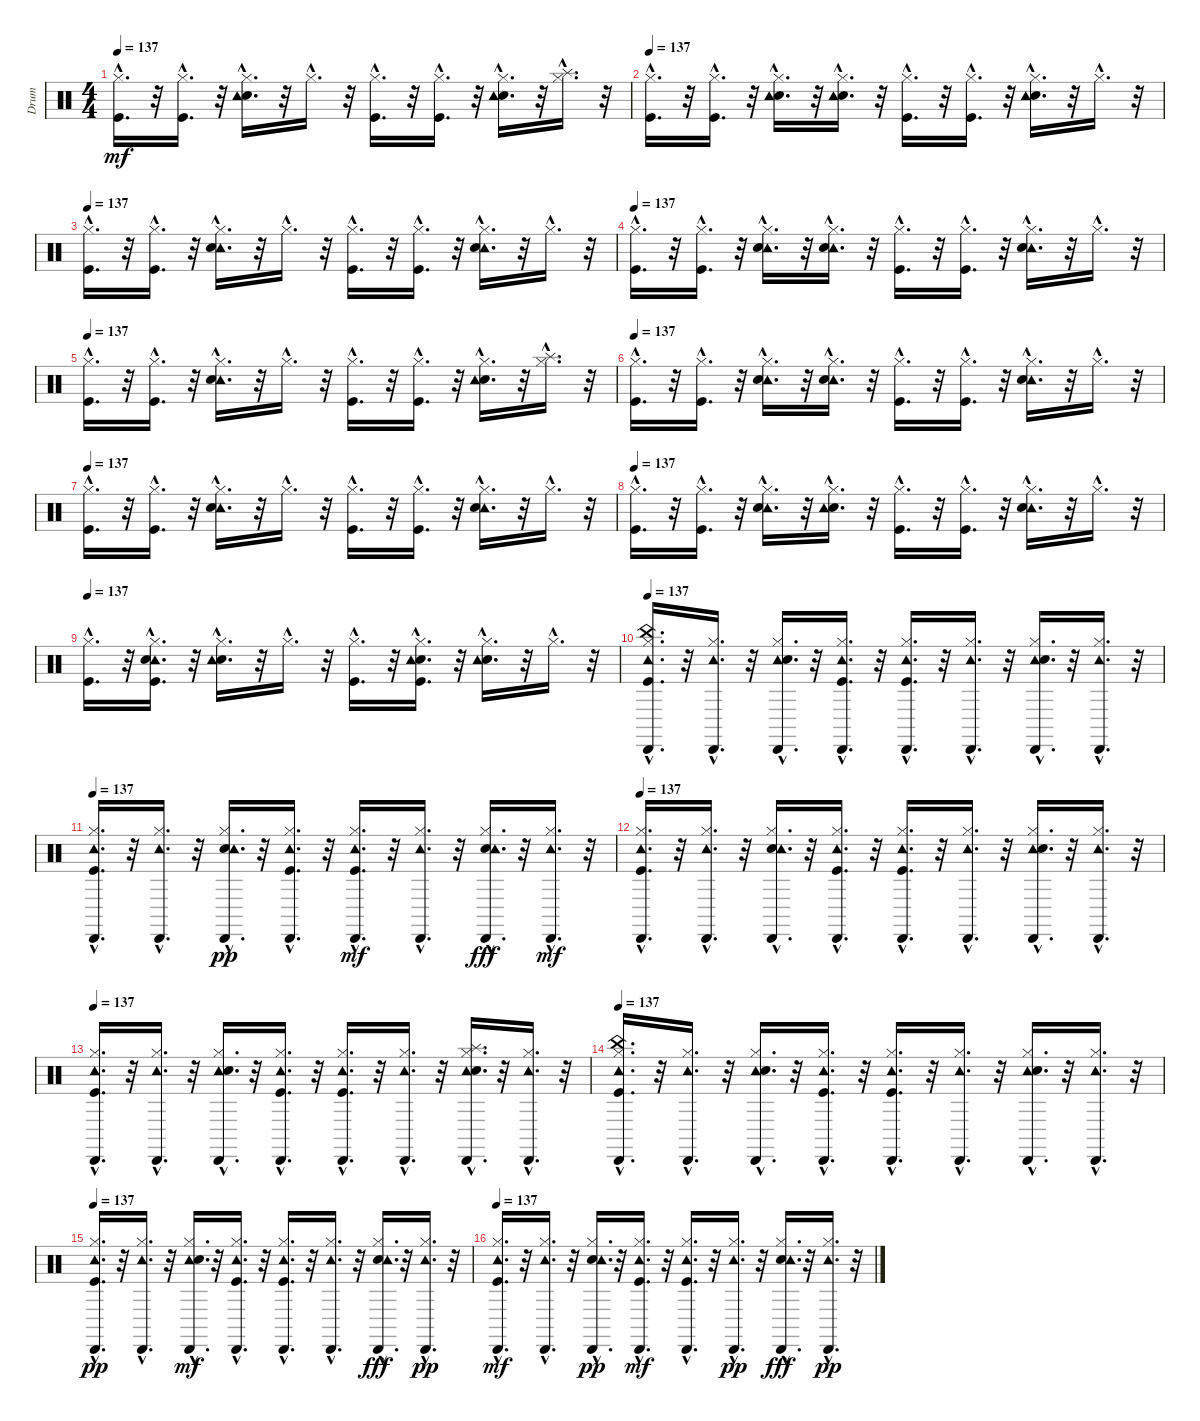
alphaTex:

\track ("Drum" "Drum") {instrument percussion}
\staff {score}
\articulation defaults
\ts (4 4)
\tempo 137
\clef neutral
\ks c
("Hi-Hat (closed)"{hac} "Kick (hit)"{hac}).16{d dy mf} r.32 ("Kick (hit)"{hac} "Hi-Hat (closed)"{hac}).16{d} r.32 ("Snare (hit) 2"{hac} "Hi-Hat (closed)"{hac} "Tambourine (hit)"{hac}).16{d} r.32 "Hi-Hat (closed)"{hac}.16{d} r.32 ("Hi-Hat (closed)"{hac} "Kick (hit)"{hac}).16{d} r.32 ("Kick (hit)"{hac} "Hi-Hat (closed)"{hac}).16{d} r.32 ("Snare (hit) 2"{hac} "Tambourine (hit)"{hac} "Hi-Hat (closed)"{hac}).16{d} r.32 ("Splash (hit)"{hac} "Hi-Hat (closed)"{hac}).16{d} r.32 |
\tempo 137
("Kick (hit)"{hac} "Hi-Hat (closed)"{hac}).16{d} r.32 ("Kick (hit)"{hac} "Hi-Hat (closed)"{hac}).16{d} r.32 ("Snare (hit) 2"{hac} "Tambourine (hit)"{hac} "Hi-Hat (closed)"{hac}).16{d} r.32 ("Snare (hit) 2"{hac} "Hi-Hat (closed)"{hac} "Tambourine (hit)"{hac}).16{d} r.32 ("Kick (hit)"{hac} "Hi-Hat (closed)"{hac}).16{d} r.32 ("Kick (hit)"{hac} "Hi-Hat (closed)"{hac}).16{d} r.32 ("Snare (hit) 2"{hac} "Tambourine (hit)"{hac} "Hi-Hat (closed)"{hac}).16{d} r.32 "Hi-Hat (closed)"{hac}.16{d} r.32 |
\tempo 137
("Hi-Hat (closed)"{hac} "Kick (hit)"{hac}).16{d} r.32 ("Hi-Hat (closed)"{hac} "Kick (hit)"{hac}).16{d} r.32 ("Tambourine (hit)"{hac} "Hi-Hat (closed)"{hac} "Snare (hit) 2"{hac}).16{d} r.32 "Hi-Hat (closed)"{hac}.16{d} r.32 ("Hi-Hat (closed)"{hac} "Kick (hit)"{hac}).16{d} r.32 ("Hi-Hat (closed)"{hac} "Kick (hit)"{hac}).16{d} r.32 ("Tambourine (hit)"{hac} "Hi-Hat (closed)"{hac} "Snare (hit) 2"{hac}).16{d} r.32 "Hi-Hat (closed)"{hac}.16{d} r.32 |
\tempo 137
("Hi-Hat (closed)"{hac} "Kick (hit)"{hac}).16{d} r.32 ("Hi-Hat (closed)"{hac} "Kick (hit)"{hac}).16{d} r.32 ("Tambourine (hit)"{hac} "Hi-Hat (closed)"{hac} "Snare (hit) 2"{hac}).16{d} r.32 ("Tambourine (hit)"{hac} "Hi-Hat (closed)"{hac} "Snare (hit) 2"{hac}).16{d} r.32 ("Hi-Hat (closed)"{hac} "Kick (hit)"{hac}).16{d} r.32 ("Hi-Hat (closed)"{hac} "Kick (hit)"{hac}).16{d} r.32 ("Tambourine (hit)"{hac} "Hi-Hat (closed)"{hac} "Snare (hit) 2"{hac}).16{d} r.32 "Hi-Hat (closed)"{hac}.16{d} r.32 |
\tempo 137
("Hi-Hat (closed)"{hac} "Kick (hit)"{hac}).16{d} r.32 ("Kick (hit)"{hac} "Hi-Hat (closed)"{hac}).16{d} r.32 ("Hi-Hat (closed)"{hac} "Tambourine (hit)"{hac} "Snare (hit) 2"{hac}).16{d} r.32 "Hi-Hat (closed)"{hac}.16{d} r.32 ("Kick (hit)"{hac} "Hi-Hat (closed)"{hac}).16{d} r.32 ("Kick (hit)"{hac} "Hi-Hat (closed)"{hac}).16{d} r.32 ("Snare (hit) 2"{hac} "Hi-Hat (closed)"{hac} "Tambourine (hit)"{hac}).16{d} r.32 ("Hi-Hat (closed)"{hac} "Splash (hit)"{hac}).16{d} r.32 |
\tempo 137
("Hi-Hat (closed)"{hac} "Kick (hit)"{hac}).16{d} r.32 ("Hi-Hat (closed)"{hac} "Kick (hit)"{hac}).16{d} r.32 ("Tambourine (hit)"{hac} "Hi-Hat (closed)"{hac} "Snare (hit) 2"{hac}).16{d} r.32 ("Tambourine (hit)"{hac} "Hi-Hat (closed)"{hac} "Snare (hit) 2"{hac}).16{d} r.32 ("Hi-Hat (closed)"{hac} "Kick (hit)"{hac}).16{d} r.32 ("Hi-Hat (closed)"{hac} "Kick (hit)"{hac}).16{d} r.32 ("Tambourine (hit)"{hac} "Hi-Hat (closed)"{hac} "Snare (hit) 2"{hac}).16{d} r.32 "Hi-Hat (closed)"{hac}.16{d} r.32 |
\tempo 137
("Hi-Hat (closed)"{hac} "Kick (hit)"{hac}).16{d} r.32 ("Hi-Hat (closed)"{hac} "Kick (hit)"{hac}).16{d} r.32 ("Tambourine (hit)"{hac} "Hi-Hat (closed)"{hac} "Snare (hit) 2"{hac}).16{d} r.32 "Hi-Hat (closed)"{hac}.16{d} r.32 ("Hi-Hat (closed)"{hac} "Kick (hit)"{hac}).16{d} r.32 ("Hi-Hat (closed)"{hac} "Kick (hit)"{hac}).16{d} r.32 ("Tambourine (hit)"{hac} "Hi-Hat (closed)"{hac} "Snare (hit) 2"{hac}).16{d} r.32 "Hi-Hat (closed)"{hac}.16{d} r.32 |
\tempo 137
("Hi-Hat (closed)"{hac} "Kick (hit)"{hac}).16{d} r.32 ("Hi-Hat (closed)"{hac} "Kick (hit)"{hac}).16{d} r.32 ("Tambourine (hit)"{hac} "Snare (hit) 2"{hac} "Hi-Hat (closed)"{hac}).16{d} r.32 ("Snare (hit) 2"{hac} "Tambourine (hit)"{hac} "Hi-Hat (closed)"{hac}).16{d} r.32 ("Kick (hit)"{hac} "Hi-Hat (closed)"{hac}).16{d} r.32 ("Kick (hit)"{hac} "Hi-Hat (closed)"{hac}).16{d} r.32 ("Tambourine (hit)"{hac} "Snare (hit) 2"{hac} "Hi-Hat (closed)"{hac}).16{d} r.32 "Hi-Hat (closed)"{hac}.16{d} r.32 |
\tempo 137
("Kick (hit)"{hac} "Hi-Hat (closed)"{hac}).16{d} r.32 ("Hi-Hat (closed)"{hac} "Tambourine (hit)"{hac} "Snare (hit) 2"{hac} "Kick (hit)"{hac}).16{d} r.32 ("Snare (hit) 2"{hac} "Tambourine (hit)"{hac} "Hi-Hat (closed)"{hac}).16{d} r.32 "Hi-Hat (closed)"{hac}.16{d} r.32 ("Hi-Hat (closed)"{hac} "Kick (hit)"{hac}).16{d} r.32 ("Snare (hit) 2"{hac} "Hi-Hat (closed)"{hac} "Tambourine (hit)"{hac} "Kick (hit)"{hac}).16{d} r.32 ("Snare (hit) 2"{hac} "Tambourine (hit)"{hac} "Hi-Hat (closed)"{hac}).16{d} r.32 "Hi-Hat (closed)"{hac}.16{d} r.32 |
\tempo 137
("Hi-Hat (closed)"{hac} "Kick (hit)"{hac} "Tambourine (hit)"{hac} "Cabasa (hit)"{hac} "China (hit)"{hac}).16{d} r.32 ("Hi-Hat (closed)"{hac} "Tambourine (hit)"{hac} "Cabasa (hit)"{hac}).16{d} r.32 ("Tambourine (hit)"{hac} "Hi-Hat (closed)"{hac} "Snare (hit) 2"{hac} "Cabasa (hit)"{hac}).16{d} r.32 ("Tambourine (hit)"{hac} "Hi-Hat (closed)"{hac} "Cabasa (hit)"{hac} "Kick (hit)"{hac}).16{d} r.32 ("Hi-Hat (closed)"{hac} "Kick (hit)"{hac} "Tambourine (hit)"{hac} "Cabasa (hit)"{hac}).16{d} r.32 ("Hi-Hat (closed)"{hac} "Tambourine (hit)"{hac} "Cabasa (hit)"{hac}).16{d} r.32 ("Tambourine (hit)"{hac} "Hi-Hat (closed)"{hac} "Snare (hit) 2"{hac} "Cabasa (hit)"{hac}).16{d} r.32 ("Hi-Hat (closed)"{hac} "Tambourine (hit)"{hac} "Cabasa (hit)"{hac}).16{d} r.32 |
\tempo 137
("Cabasa (hit)"{hac} "Tambourine (hit)"{hac} "Kick (hit)"{hac} "Hi-Hat (closed)"{hac}).16{d} r.32 ("Cabasa (hit)"{hac} "Tambourine (hit)"{hac} "Hi-Hat (closed)"{hac}).16{d} r.32 ("Cabasa (hit)"{hac} "Snare (hit) 2"{hac} "Hi-Hat (closed)"{hac} "Tambourine (hit)"{hac}).16{d dy pp} r.32 ("Kick (hit)"{hac} "Cabasa (hit)"{hac} "Hi-Hat (closed)"{hac} "Tambourine (hit)"{hac}).16{d} r.32 ("Cabasa (hit)"{hac} "Tambourine (hit)"{hac} "Kick (hit)"{hac} "Hi-Hat (closed)"{hac}).16{d dy mf} r.32 ("Cabasa (hit)"{hac} "Tambourine (hit)"{hac} "Hi-Hat (closed)"{hac}).16{d} r.32 ("Cabasa (hit)"{hac} "Snare (hit) 2"{hac} "Hi-Hat (closed)"{hac} "Tambourine (hit)"{hac}).16{d dy fff} r.32 ("Cabasa (hit)"{hac} "Tambourine (hit)"{hac} "Hi-Hat (closed)"{hac}).16{d dy mf} r.32 |
\tempo 137
("Tambourine (hit)"{hac} "Kick (hit)"{hac} "Cabasa (hit)"{hac} "Hi-Hat (closed)"{hac}).16{d} r.32 ("Cabasa (hit)"{hac} "Tambourine (hit)"{hac} "Hi-Hat (closed)"{hac}).16{d} r.32 ("Snare (hit) 2"{hac} "Hi-Hat (closed)"{hac} "Tambourine (hit)"{hac} "Cabasa (hit)"{hac}).16{d} r.32 ("Tambourine (hit)"{hac} "Hi-Hat (closed)"{hac} "Cabasa (hit)"{hac} "Kick (hit)"{hac}).16{d} r.32 ("Hi-Hat (closed)"{hac} "Tambourine (hit)"{hac} "Cabasa (hit)"{hac} "Kick (hit)"{hac}).16{d} r.32 ("Cabasa (hit)"{hac} "Tambourine (hit)"{hac} "Hi-Hat (closed)"{hac}).16{d} r.32 ("Cabasa (hit)"{hac} "Hi-Hat (closed)"{hac} "Tambourine (hit)"{hac} "Snare (hit) 2"{hac}).16{d} r.32 ("Hi-Hat (closed)"{hac} "Tambourine (hit)"{hac} "Cabasa (hit)"{hac}).16{d} r.32 |
\tempo 137
("Hi-Hat (closed)"{hac} "Kick (hit)"{hac} "Tambourine (hit)"{hac} "Cabasa (hit)"{hac}).16{d} r.32 ("Hi-Hat (closed)"{hac} "Tambourine (hit)"{hac} "Cabasa (hit)"{hac}).16{d} r.32 ("Tambourine (hit)"{hac} "Hi-Hat (closed)"{hac} "Snare (hit) 2"{hac} "Cabasa (hit)"{hac}).16{d} r.32 ("Tambourine (hit)"{hac} "Hi-Hat (closed)"{hac} "Cabasa (hit)"{hac} "Kick (hit)"{hac}).16{d} r.32 ("Hi-Hat (closed)"{hac} "Kick (hit)"{hac} "Tambourine (hit)"{hac} "Cabasa (hit)"{hac}).16{d} r.32 ("Hi-Hat (closed)"{hac} "Tambourine (hit)"{hac} "Cabasa (hit)"{hac}).16{d} r.32 ("Tambourine (hit)"{hac} "Hi-Hat (closed)"{hac} "Snare (hit) 2"{hac} "Cabasa (hit)"{hac} "Splash (hit)"{hac}).16{d} r.32 ("Hi-Hat (closed)"{hac} "Tambourine (hit)"{hac} "Cabasa (hit)"{hac}).16{d} r.32 |
\tempo 137
("Hi-Hat (closed)"{hac} "Kick (hit)"{hac} "Tambourine (hit)"{hac} "Cabasa (hit)"{hac} "China (hit)"{hac}).16{d} r.32 ("Hi-Hat (closed)"{hac} "Tambourine (hit)"{hac} "Cabasa (hit)"{hac}).16{d} r.32 ("Tambourine (hit)"{hac} "Hi-Hat (closed)"{hac} "Snare (hit) 2"{hac} "Cabasa (hit)"{hac}).16{d} r.32 ("Tambourine (hit)"{hac} "Hi-Hat (closed)"{hac} "Cabasa (hit)"{hac} "Kick (hit)"{hac}).16{d} r.32 ("Hi-Hat (closed)"{hac} "Kick (hit)"{hac} "Tambourine (hit)"{hac} "Cabasa (hit)"{hac}).16{d} r.32 ("Hi-Hat (closed)"{hac} "Tambourine (hit)"{hac} "Cabasa (hit)"{hac}).16{d} r.32 ("Tambourine (hit)"{hac} "Hi-Hat (closed)"{hac} "Snare (hit) 2"{hac} "Cabasa (hit)"{hac}).16{d} r.32 ("Hi-Hat (closed)"{hac} "Tambourine (hit)"{hac} "Cabasa (hit)"{hac}).16{d} r.32 |
\tempo 137
("Hi-Hat (closed)"{hac} "Cabasa (hit)"{hac} "Kick (hit)"{hac} "Tambourine (hit)"{hac}).16{d dy pp} r.32 ("Hi-Hat (closed)"{hac} "Cabasa (hit)"{hac} "Tambourine (hit)"{hac}).16{d} r.32 ("Tambourine (hit)"{hac} "Snare (hit) 2"{hac} "Hi-Hat (closed)"{hac} "Cabasa (hit)"{hac}).16{d dy mf} r.32 ("Kick (hit)"{hac} "Cabasa (hit)"{hac} "Tambourine (hit)"{hac} "Hi-Hat (closed)"{hac}).16{d} r.32 ("Cabasa (hit)"{hac} "Tambourine (hit)"{hac} "Hi-Hat (closed)"{hac} "Kick (hit)"{hac}).16{d} r.32 ("Tambourine (hit)"{hac} "Cabasa (hit)"{hac} "Hi-Hat (closed)"{hac}).16{d} r.32 ("Hi-Hat (closed)"{hac} "Snare (hit) 2"{hac} "Cabasa (hit)"{hac} "Tambourine (hit)"{hac}).16{d dy fff} r.32 ("Hi-Hat (closed)"{hac} "Cabasa (hit)"{hac} "Tambourine (hit)"{hac}).16{d dy pp} r.32 |
\tempo 137
("Kick (hit)"{hac} "Cabasa (hit)"{hac} "Tambourine (hit)"{hac} "Hi-Hat (closed)"{hac}).16{d dy mf} r.32 ("Tambourine (hit)"{hac} "Hi-Hat (closed)"{hac} "Cabasa (hit)"{hac}).16{d} r.32 ("Snare (hit) 2"{hac} "Hi-Hat (closed)"{hac} "Cabasa (hit)"{hac} "Tambourine (hit)"{hac}).16{d dy pp} r.32 ("Hi-Hat (closed)"{hac} "Tambourine (hit)"{hac} "Kick (hit)"{hac} "Cabasa (hit)"{hac}).16{d dy mf} r.32 ("Tambourine (hit)"{hac} "Cabasa (hit)"{hac} "Hi-Hat (closed)"{hac} "Kick (hit)"{hac}).16{d} r.32 ("Hi-Hat (closed)"{hac} "Cabasa (hit)"{hac} "Tambourine (hit)"{hac}).16{d dy pp} r.32 ("Cabasa (hit)"{hac} "Hi-Hat (closed)"{hac} "Snare (hit) 2"{hac} "Tambourine (hit)"{hac}).16{d dy fff} r.32 ("Cabasa (hit)"{hac} "Hi-Hat (closed)"{hac} "Tambourine (hit)"{hac}).16{d dy pp} r.32
